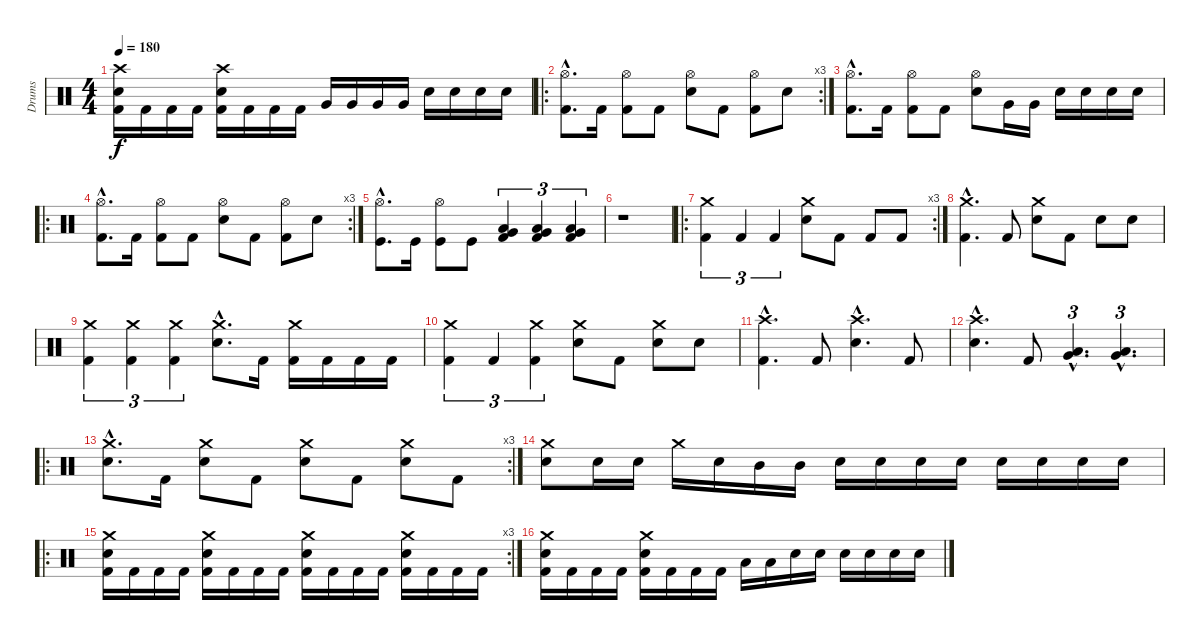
\track ("Drums" "Drums") {instrument percussion}
\staff {score}
\articulation defaults
\ts (4 4)
\tempo 180
\clef neutral
\ks c
("Crash high (hit)" "Electric Snare (hit)" "Kick (hit) 2").16{dy f} "Kick (hit) 2".16 "Kick (hit) 2".16 "Kick (hit) 2".16 ("Crash high (hit)" "Electric Snare (hit)" "Kick (hit) 2").16 "Kick (hit) 2".16 "Kick (hit) 2".16 "Kick (hit) 2".16 "Very Low Tom (hit)".16 "Very Low Tom (hit)".16 "Very Low Tom (hit)".16 "Very Low Tom (hit)".16 "Electric Snare (hit)".16 "Electric Snare (hit)".16 "Electric Snare (hit)".16 "Electric Snare (hit)".16 |
\ro
\rc 3
("Hi-Hat (open)"{hac} "Kick (hit) 2"{hac}).8{d} "Kick (hit) 2".16 ("Hi-Hat (open)" "Kick (hit) 2").8 "Kick (hit) 2".8 ("Hi-Hat (open)" "Electric Snare (hit)").8 "Kick (hit) 2".8 ("Hi-Hat (open)" "Kick (hit) 2").8 "Electric Snare (hit)".8 |
("Hi-Hat (open)"{hac} "Kick (hit) 2"{hac}).8{d} "Kick (hit) 2".16 ("Hi-Hat (open)" "Kick (hit) 2").8 "Kick (hit) 2".8 ("Hi-Hat (open)" "Electric Snare (hit)").8 "Very Low Tom (hit)".16 "Very Low Tom (hit)".16 "Electric Snare (hit)".16 "Electric Snare (hit)".16 "Electric Snare (hit)".16 "Electric Snare (hit)".16 |
\ro
\rc 3
("Hi-Hat (open)"{hac} "Kick (hit) 2"{hac}).8{d} "Kick (hit) 2".16 ("Hi-Hat (open)" "Kick (hit) 2").8 "Kick (hit) 2".8 ("Hi-Hat (open)" "Electric Snare (hit)").8 "Kick (hit) 2".8 ("Hi-Hat (open)" "Kick (hit) 2").8 "Electric Snare (hit)".8 |
("Hi-Hat (open)"{hac} "Kick (hit)"{hac}).8{d} "Kick (hit)".16 ("Hi-Hat (open)" "Kick (hit)").8 "Kick (hit)".8 ("Kick (hit) 2" "Very Low Tom (hit)" "Low Floor Tom (hit)").4{tu (3 2)} ("Kick (hit) 2" "Very Low Tom (hit)" "Low Floor Tom (hit)").4{tu (3 2)} ("Kick (hit) 2" "Very Low Tom (hit)" "Low Floor Tom (hit)").4{tu (3 2)} |
r.1 |
\ro
\rc 3
("Crash medium (hit)" "Kick (hit) 2").4{tu (3 2)} "Kick (hit) 2".4{tu (3 2)} "Kick (hit) 2".4{tu (3 2)} ("Crash medium (hit)" "Electric Snare (hit)").8 "Kick (hit) 2".8 "Kick (hit) 2".8 "Kick (hit) 2".8 |
("Crash medium (hit)"{hac} "Kick (hit) 2"{hac}).4{d} "Kick (hit) 2".8 ("Crash medium (hit)" "Electric Snare (hit)").8 "Kick (hit) 2".8 "Electric Snare (hit)".8 "Electric Snare (hit)".8 |
("Crash medium (hit)" "Kick (hit) 2").4{tu (3 2)} ("Crash medium (hit)" "Kick (hit) 2").4{tu (3 2)} ("Crash medium (hit)" "Kick (hit) 2").4{tu (3 2)} ("Crash medium (hit)"{hac} "Electric Snare (hit)"{hac}).8{d} "Kick (hit) 2".16 ("Crash medium (hit)" "Kick (hit) 2").16 "Kick (hit) 2".16 "Kick (hit) 2".16 "Kick (hit) 2".16 |
("Crash medium (hit)" "Kick (hit) 2").4{tu (3 2)} "Kick (hit) 2".4{tu (3 2)} ("Crash medium (hit)" "Kick (hit) 2").4{tu (3 2)} ("Crash medium (hit)" "Electric Snare (hit)").8 "Kick (hit) 2".8 ("Crash medium (hit)" "Electric Snare (hit)").8 "Electric Snare (hit)".8 |
("Crash high (hit)"{hac} "Kick (hit) 2"{hac}).4{d} "Kick (hit) 2".8 ("Crash high (hit)"{hac} "Electric Snare (hit)"{hac}).4{d} "Kick (hit) 2".8 |
("Crash high (hit)"{hac} "Electric Snare (hit)"{hac}).4{d} "Kick (hit) 2".8 ("Very Low Tom (hit)"{hac} "Low Floor Tom (hit)"{hac}).4{d tu (3 2)} ("Very Low Tom (hit)"{hac} "Low Floor Tom (hit)"{hac}).4{d tu (3 2)} |
\ro
\rc 3
("Crash medium (hit)"{hac} "Electric Snare (hit)"{hac}).8{d} "Kick (hit) 2".16 ("Crash medium (hit)" "Electric Snare (hit)").8 "Kick (hit) 2".8 ("Crash medium (hit)" "Electric Snare (hit)").8 "Kick (hit) 2".8 ("Crash medium (hit)" "Electric Snare (hit)").8 "Kick (hit) 2".8 |
("Crash medium (hit)" "Electric Snare (hit)").8 "Electric Snare (hit)".16 "Electric Snare (hit)".16 "Crash medium (hit)".16 "Electric Snare (hit)".16 "Mid Tom (hit)".16 "Mid Tom (hit)".16 "Electric Snare (hit)".16 "Electric Snare (hit)".16 "Electric Snare (hit)".16 "Electric Snare (hit)".16 "Electric Snare (hit)".16 "Electric Snare (hit)".16 "Electric Snare (hit)".16 "Electric Snare (hit)".16 |
\ro
\rc 3
("Crash medium (hit)" "Electric Snare (hit)" "Kick (hit) 2").16 "Kick (hit) 2".16 "Kick (hit) 2".16 "Kick (hit) 2".16 ("Crash medium (hit)" "Electric Snare (hit)" "Kick (hit) 2").16 "Kick (hit) 2".16 "Kick (hit) 2".16 "Kick (hit) 2".16 ("Crash medium (hit)" "Electric Snare (hit)" "Kick (hit) 2").16 "Kick (hit) 2".16 "Kick (hit) 2".16 "Kick (hit) 2".16 ("Crash medium (hit)" "Electric Snare (hit)" "Kick (hit) 2").16 "Kick (hit) 2".16 "Kick (hit) 2".16 "Kick (hit) 2".16 |
("Crash medium (hit)" "Electric Snare (hit)" "Kick (hit) 2").16 "Kick (hit) 2".16 "Kick (hit) 2".16 "Kick (hit) 2".16 ("Crash medium (hit)" "Electric Snare (hit)" "Kick (hit) 2").16 "Kick (hit) 2".16 "Kick (hit) 2".16 "Kick (hit) 2".16 "Low Tom (hit)".16 "Low Tom (hit)".16 "Electric Snare (hit)".16 "Electric Snare (hit)".16 "Electric Snare (hit)".16 "Electric Snare (hit)".16 "Electric Snare (hit)".16 "Electric Snare (hit)".16
